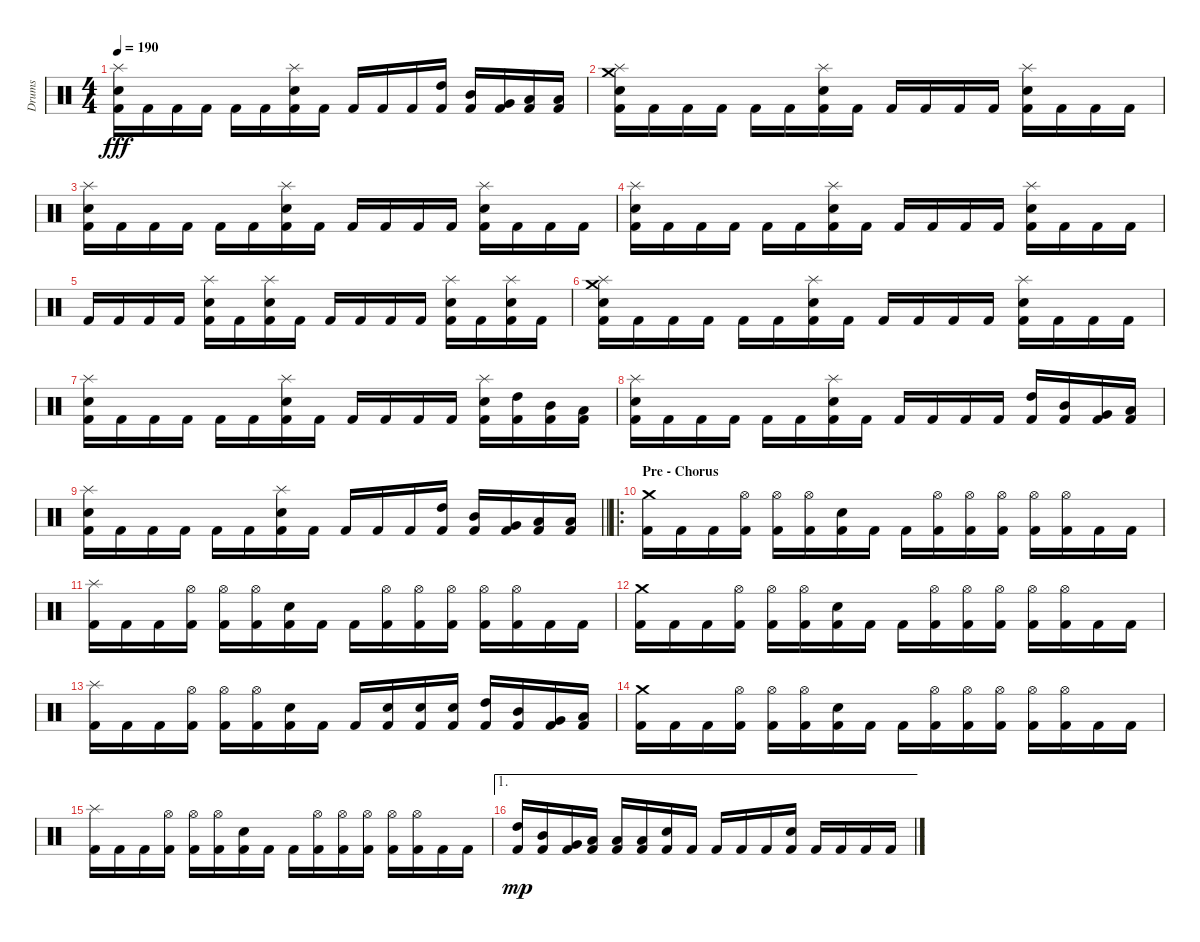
\track ("Drums" "Drums") {instrument percussion}
\staff {score}
\articulation defaults
\ts (4 4)
\tempo 190
\clef neutral
\ks c
("Splash (hit)" "Electric Snare (hit)" "Kick (hit) 2").16{dy fff} "Kick (hit) 2".16 "Kick (hit) 2".16 "Kick (hit) 2".16 "Kick (hit) 2".16 "Kick (hit) 2".16 ("Splash (hit)" "Electric Snare (hit)" "Kick (hit) 2").16 "Kick (hit) 2".16 "Kick (hit) 2".16 "Kick (hit) 2".16 "Kick (hit) 2".16 ("High Tom (hit)" "Kick (hit) 2").16 ("Mid Tom (hit)" "Kick (hit) 2").16 ("Very Low Tom (hit)" "Kick (hit) 2").16 ("Low Tom (hit)" "Kick (hit) 2").16 ("Low Floor Tom (hit)" "Kick (hit) 2").16 |
("Crash medium (hit)" "Splash (hit)" "Electric Snare (hit)" "Kick (hit) 2").16 "Kick (hit) 2".16 "Kick (hit) 2".16 "Kick (hit) 2".16 "Kick (hit) 2".16 "Kick (hit) 2".16 ("Splash (hit)" "Electric Snare (hit)" "Kick (hit) 2").16 "Kick (hit) 2".16 "Kick (hit) 2".16 "Kick (hit) 2".16 "Kick (hit) 2".16 "Kick (hit) 2".16 ("Splash (hit)" "Electric Snare (hit)" "Kick (hit) 2").16 "Kick (hit) 2".16 "Kick (hit) 2".16 "Kick (hit) 2".16 |
("Splash (hit)" "Electric Snare (hit)" "Kick (hit) 2").16 "Kick (hit) 2".16 "Kick (hit) 2".16 "Kick (hit) 2".16 "Kick (hit) 2".16 "Kick (hit) 2".16 ("Splash (hit)" "Electric Snare (hit)" "Kick (hit) 2").16 "Kick (hit) 2".16 "Kick (hit) 2".16 "Kick (hit) 2".16 "Kick (hit) 2".16 "Kick (hit) 2".16 ("Splash (hit)" "Electric Snare (hit)" "Kick (hit) 2").16 "Kick (hit) 2".16 "Kick (hit) 2".16 "Kick (hit) 2".16 |
("Splash (hit)" "Electric Snare (hit)" "Kick (hit) 2").16 "Kick (hit) 2".16 "Kick (hit) 2".16 "Kick (hit) 2".16 "Kick (hit) 2".16 "Kick (hit) 2".16 ("Splash (hit)" "Electric Snare (hit)" "Kick (hit) 2").16 "Kick (hit) 2".16 "Kick (hit) 2".16 "Kick (hit) 2".16 "Kick (hit) 2".16 "Kick (hit) 2".16 ("Splash (hit)" "Electric Snare (hit)" "Kick (hit) 2").16 "Kick (hit) 2".16 "Kick (hit) 2".16 "Kick (hit) 2".16 |
"Kick (hit) 2".16 "Kick (hit) 2".16 "Kick (hit) 2".16 "Kick (hit) 2".16 ("Splash (hit)" "Electric Snare (hit)" "Kick (hit) 2").16 "Kick (hit) 2".16 ("Splash (hit)" "Electric Snare (hit)" "Kick (hit) 2").16 "Kick (hit) 2".16 "Kick (hit) 2".16 "Kick (hit) 2".16 "Kick (hit) 2".16 "Kick (hit) 2".16 ("Splash (hit)" "Electric Snare (hit)" "Kick (hit) 2").16 "Kick (hit) 2".16 ("Splash (hit)" "Electric Snare (hit)" "Kick (hit) 2").16 "Kick (hit) 2".16 |
("Crash medium (hit)" "Splash (hit)" "Electric Snare (hit)" "Kick (hit) 2").16 "Kick (hit) 2".16 "Kick (hit) 2".16 "Kick (hit) 2".16 "Kick (hit) 2".16 "Kick (hit) 2".16 ("Splash (hit)" "Electric Snare (hit)" "Kick (hit) 2").16 "Kick (hit) 2".16 "Kick (hit) 2".16 "Kick (hit) 2".16 "Kick (hit) 2".16 "Kick (hit) 2".16 ("Splash (hit)" "Electric Snare (hit)" "Kick (hit) 2").16 "Kick (hit) 2".16 "Kick (hit) 2".16 "Kick (hit) 2".16 |
("Splash (hit)" "Electric Snare (hit)" "Kick (hit) 2").16 "Kick (hit) 2".16 "Kick (hit) 2".16 "Kick (hit) 2".16 "Kick (hit) 2".16 "Kick (hit) 2".16 ("Splash (hit)" "Electric Snare (hit)" "Kick (hit) 2").16 "Kick (hit) 2".16 "Kick (hit) 2".16 "Kick (hit) 2".16 "Kick (hit) 2".16 "Kick (hit) 2".16 ("Splash (hit)" "Electric Snare (hit)" "Kick (hit) 2").16 ("High Tom (hit)" "Kick (hit) 2").16 ("Mid Tom (hit)" "Kick (hit) 2").16 ("Low Tom (hit)" "Kick (hit) 2").16 |
("Splash (hit)" "Electric Snare (hit)" "Kick (hit) 2").16 "Kick (hit) 2".16 "Kick (hit) 2".16 "Kick (hit) 2".16 "Kick (hit) 2".16 "Kick (hit) 2".16 ("Splash (hit)" "Electric Snare (hit)" "Kick (hit) 2").16 "Kick (hit) 2".16 "Kick (hit) 2".16 "Kick (hit) 2".16 "Kick (hit) 2".16 "Kick (hit) 2".16 ("High Tom (hit)" "Kick (hit) 2").16 ("Mid Tom (hit)" "Kick (hit) 2").16 ("Very Low Tom (hit)" "Kick (hit) 2").16 ("Low Tom (hit)" "Kick (hit) 2").16 |
\barLineRight lightlight
("Splash (hit)" "Electric Snare (hit)" "Kick (hit) 2").16 "Kick (hit) 2".16 "Kick (hit) 2".16 "Kick (hit) 2".16 "Kick (hit) 2".16 "Kick (hit) 2".16 ("Splash (hit)" "Electric Snare (hit)" "Kick (hit) 2").16 "Kick (hit) 2".16 "Kick (hit) 2".16 "Kick (hit) 2".16 "Kick (hit) 2".16 ("High Tom (hit)" "Kick (hit) 2").16 ("Mid Tom (hit)" "Kick (hit) 2").16 ("Very Low Tom (hit)" "Kick (hit) 2").16 ("Low Tom (hit)" "Kick (hit) 2").16 ("Low Floor Tom (hit)" "Kick (hit) 2").16 |
\ro
\section ("" "Pre - Chorus")
("Crash medium (hit)" "Kick (hit) 2").16 "Kick (hit) 2".16 "Kick (hit) 2".16 ("Hi-Hat (open)" "Kick (hit) 2").16 ("Hi-Hat (open)" "Kick (hit) 2").16 ("Hi-Hat (open)" "Kick (hit) 2").16 ("Electric Snare (hit)" "Kick (hit) 2").16 "Kick (hit) 2".16 "Kick (hit) 2".16 ("Hi-Hat (open)" "Kick (hit) 2").16 ("Hi-Hat (open)" "Kick (hit) 2").16 ("Hi-Hat (open)" "Kick (hit) 2").16 ("Hi-Hat (open)" "Kick (hit) 2").16 ("Hi-Hat (open)" "Kick (hit) 2").16 "Kick (hit) 2".16 "Kick (hit) 2".16 |
("Splash (hit)" "Kick (hit) 2").16 "Kick (hit) 2".16 "Kick (hit) 2".16 ("Hi-Hat (open)" "Kick (hit) 2").16 ("Hi-Hat (open)" "Kick (hit) 2").16 ("Hi-Hat (open)" "Kick (hit) 2").16 ("Electric Snare (hit)" "Kick (hit) 2").16 "Kick (hit) 2".16 "Kick (hit) 2".16 ("Hi-Hat (open)" "Kick (hit) 2").16 ("Hi-Hat (open)" "Kick (hit) 2").16 ("Hi-Hat (open)" "Kick (hit) 2").16 ("Hi-Hat (open)" "Kick (hit) 2").16 ("Hi-Hat (open)" "Kick (hit) 2").16 "Kick (hit) 2".16 "Kick (hit) 2".16 |
("Crash medium (hit)" "Kick (hit) 2").16 "Kick (hit) 2".16 "Kick (hit) 2".16 ("Hi-Hat (open)" "Kick (hit) 2").16 ("Hi-Hat (open)" "Kick (hit) 2").16 ("Hi-Hat (open)" "Kick (hit) 2").16 ("Electric Snare (hit)" "Kick (hit) 2").16 "Kick (hit) 2".16 "Kick (hit) 2".16 ("Hi-Hat (open)" "Kick (hit) 2").16 ("Hi-Hat (open)" "Kick (hit) 2").16 ("Hi-Hat (open)" "Kick (hit) 2").16 ("Hi-Hat (open)" "Kick (hit) 2").16 ("Hi-Hat (open)" "Kick (hit) 2").16 "Kick (hit) 2".16 "Kick (hit) 2".16 |
("Splash (hit)" "Kick (hit) 2").16 "Kick (hit) 2".16 "Kick (hit) 2".16 ("Hi-Hat (open)" "Kick (hit) 2").16 ("Hi-Hat (open)" "Kick (hit) 2").16 ("Hi-Hat (open)" "Kick (hit) 2").16 ("Electric Snare (hit)" "Kick (hit) 2").16 "Kick (hit) 2".16 "Kick (hit) 2".16 ("Electric Snare (hit)" "Kick (hit) 2").16 ("Electric Snare (hit)" "Kick (hit) 2").16 ("Electric Snare (hit)" "Kick (hit) 2").16 ("High Tom (hit)" "Kick (hit) 2").16 ("Mid Tom (hit)" "Kick (hit) 2").16 ("Very Low Tom (hit)" "Kick (hit) 2").16 ("Low Tom (hit)" "Kick (hit) 2").16 |
("Crash medium (hit)" "Kick (hit) 2").16 "Kick (hit) 2".16 "Kick (hit) 2".16 ("Hi-Hat (open)" "Kick (hit) 2").16 ("Hi-Hat (open)" "Kick (hit) 2").16 ("Hi-Hat (open)" "Kick (hit) 2").16 ("Electric Snare (hit)" "Kick (hit) 2").16 "Kick (hit) 2".16 "Kick (hit) 2".16 ("Hi-Hat (open)" "Kick (hit) 2").16 ("Hi-Hat (open)" "Kick (hit) 2").16 ("Hi-Hat (open)" "Kick (hit) 2").16 ("Hi-Hat (open)" "Kick (hit) 2").16 ("Hi-Hat (open)" "Kick (hit) 2").16 "Kick (hit) 2".16 "Kick (hit) 2".16 |
("Splash (hit)" "Kick (hit) 2").16 "Kick (hit) 2".16 "Kick (hit) 2".16 ("Hi-Hat (open)" "Kick (hit) 2").16 ("Hi-Hat (open)" "Kick (hit) 2").16 ("Hi-Hat (open)" "Kick (hit) 2").16 ("Electric Snare (hit)" "Kick (hit) 2").16 "Kick (hit) 2".16 "Kick (hit) 2".16 ("Hi-Hat (open)" "Kick (hit) 2").16 ("Hi-Hat (open)" "Kick (hit) 2").16 ("Hi-Hat (open)" "Kick (hit) 2").16 ("Hi-Hat (open)" "Kick (hit) 2").16 ("Hi-Hat (open)" "Kick (hit) 2").16 "Kick (hit) 2".16 "Kick (hit) 2".16 |
\ae 1
("High Tom (hit)" "Kick (hit) 2").16{dy mp} ("Mid Tom (hit)" "Kick (hit) 2").16 ("Very Low Tom (hit)" "Kick (hit) 2").16 ("Low Tom (hit)" "Kick (hit) 2").16 ("Low Floor Tom (hit)" "Kick (hit) 2").16 ("Low Tom (hit)" "Kick (hit) 2").16 ("Electric Snare (hit)" "Kick (hit) 2").16 "Kick (hit) 2".16 "Kick (hit) 2".16 "Kick (hit) 2".16 "Kick (hit) 2".16 ("Electric Snare (hit)" "Kick (hit) 2").16 "Kick (hit) 2".16 "Kick (hit) 2".16 "Kick (hit) 2".16 "Kick (hit) 2".16
